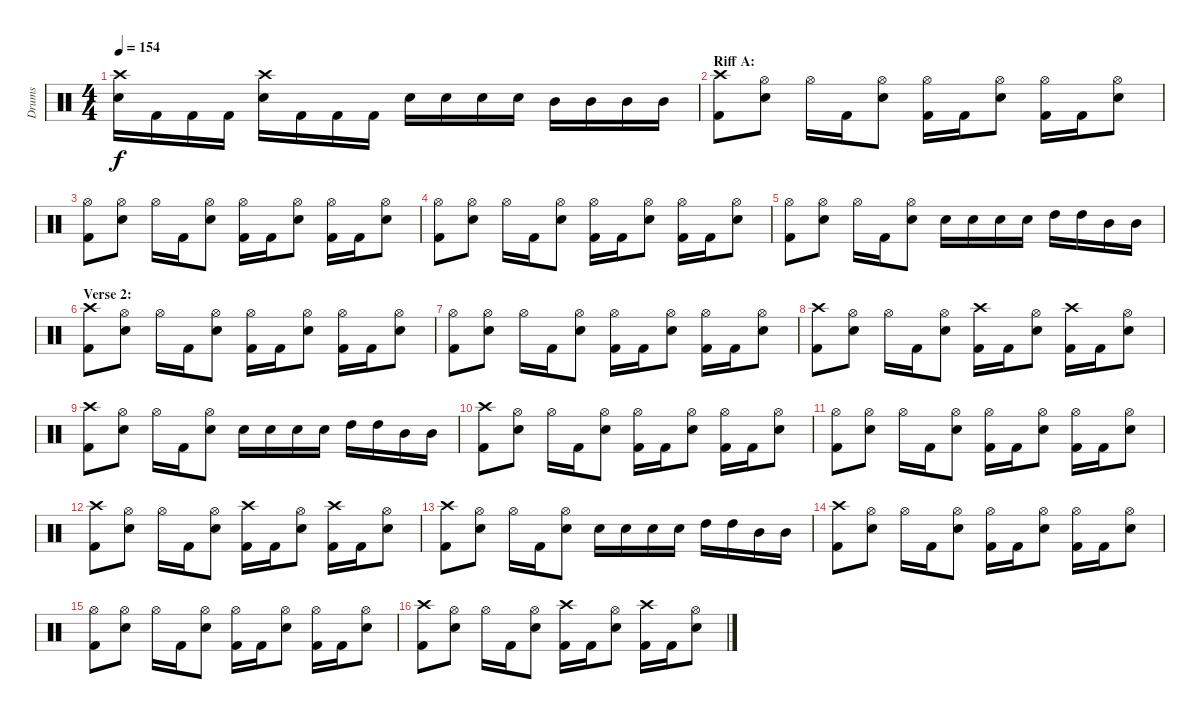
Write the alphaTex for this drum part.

\track ("Drums" "Drums") {instrument percussion}
\staff {score}
\articulation defaults
\ts (4 4)
\tempo 154
\clef neutral
\ks c
("Crash high (hit)" "Snare (hit) 2").16{dy f} "Kick (hit) 2".16 "Kick (hit) 2".16 "Kick (hit) 2".16 ("Crash high (hit)" "Snare (hit) 2").16 "Kick (hit) 2".16 "Kick (hit) 2".16 "Kick (hit) 2".16 "Snare (hit) 2".16 "Snare (hit) 2".16 "Snare (hit) 2".16 "Snare (hit) 2".16 "Mid Tom (hit)".16 "Mid Tom (hit)".16 "Mid Tom (hit)".16 "Mid Tom (hit)".16 |
\section ("" "Riff A:")
("Crash high (hit)" "Kick (hit) 2").8 ("Hi-Hat (open)" "Snare (hit) 2").8 "Hi-Hat (open)".16 "Kick (hit) 2".16 ("Hi-Hat (open)" "Snare (hit) 2").8 ("Hi-Hat (open)" "Kick (hit) 2").16 "Kick (hit) 2".16 ("Hi-Hat (open)" "Snare (hit) 2").8 ("Hi-Hat (open)" "Kick (hit) 2").16 "Kick (hit) 2".16 ("Hi-Hat (open)" "Snare (hit) 2").8 |
("Hi-Hat (open)" "Kick (hit) 2").8 ("Hi-Hat (open)" "Snare (hit) 2").8 "Hi-Hat (open)".16 "Kick (hit) 2".16 ("Hi-Hat (open)" "Snare (hit) 2").8 ("Hi-Hat (open)" "Kick (hit) 2").16 "Kick (hit) 2".16 ("Hi-Hat (open)" "Snare (hit) 2").8 ("Hi-Hat (open)" "Kick (hit) 2").16 "Kick (hit) 2".16 ("Hi-Hat (open)" "Snare (hit) 2").8 |
("Hi-Hat (open)" "Kick (hit) 2").8 ("Hi-Hat (open)" "Snare (hit) 2").8 "Hi-Hat (open)".16 "Kick (hit) 2".16 ("Hi-Hat (open)" "Snare (hit) 2").8 ("Hi-Hat (open)" "Kick (hit) 2").16 "Kick (hit) 2".16 ("Hi-Hat (open)" "Snare (hit) 2").8 ("Hi-Hat (open)" "Kick (hit) 2").16 "Kick (hit) 2".16 ("Hi-Hat (open)" "Snare (hit) 2").8 |
("Hi-Hat (open)" "Kick (hit) 2").8 ("Hi-Hat (open)" "Snare (hit) 2").8 "Hi-Hat (open)".16 "Kick (hit) 2".16 ("Hi-Hat (open)" "Snare (hit) 2").8 "Snare (hit) 2".16 "Snare (hit) 2".16 "Snare (hit) 2".16 "Snare (hit) 2".16 "High Tom (hit)".16 "High Tom (hit)".16 "Mid Tom (hit)".16 "Mid Tom (hit)".16 |
\section ("" "Verse 2:")
("Crash high (hit)" "Kick (hit) 2").8 ("Hi-Hat (open)" "Snare (hit) 2").8 "Hi-Hat (open)".16 "Kick (hit) 2".16 ("Hi-Hat (open)" "Snare (hit) 2").8 ("Hi-Hat (open)" "Kick (hit) 2").16 "Kick (hit) 2".16 ("Hi-Hat (open)" "Snare (hit) 2").8 ("Hi-Hat (open)" "Kick (hit) 2").16 "Kick (hit) 2".16 ("Hi-Hat (open)" "Snare (hit) 2").8 |
("Hi-Hat (open)" "Kick (hit) 2").8 ("Hi-Hat (open)" "Snare (hit) 2").8 "Hi-Hat (open)".16 "Kick (hit) 2".16 ("Hi-Hat (open)" "Snare (hit) 2").8 ("Hi-Hat (open)" "Kick (hit) 2").16 "Kick (hit) 2".16 ("Hi-Hat (open)" "Snare (hit) 2").8 ("Hi-Hat (open)" "Kick (hit) 2").16 "Kick (hit) 2".16 ("Hi-Hat (open)" "Snare (hit) 2").8 |
("Crash high (hit)" "Kick (hit) 2").8 ("Hi-Hat (open)" "Snare (hit) 2").8 "Hi-Hat (open)".16 "Kick (hit) 2".16 ("Hi-Hat (open)" "Snare (hit) 2").8 ("Crash high (hit)" "Kick (hit) 2").16 "Kick (hit) 2".16 ("Hi-Hat (open)" "Snare (hit) 2").8 ("Crash high (hit)" "Kick (hit) 2").16 "Kick (hit) 2".16 ("Hi-Hat (open)" "Snare (hit) 2").8 |
("Crash high (hit)" "Kick (hit) 2").8 ("Hi-Hat (open)" "Snare (hit) 2").8 "Hi-Hat (open)".16 "Kick (hit) 2".16 ("Hi-Hat (open)" "Snare (hit) 2").8 "Snare (hit) 2".16 "Snare (hit) 2".16 "Snare (hit) 2".16 "Snare (hit) 2".16 "High Tom (hit)".16 "High Tom (hit)".16 "Mid Tom (hit)".16 "Mid Tom (hit)".16 |
("Crash high (hit)" "Kick (hit) 2").8 ("Hi-Hat (open)" "Snare (hit) 2").8 "Hi-Hat (open)".16 "Kick (hit) 2".16 ("Hi-Hat (open)" "Snare (hit) 2").8 ("Hi-Hat (open)" "Kick (hit) 2").16 "Kick (hit) 2".16 ("Hi-Hat (open)" "Snare (hit) 2").8 ("Hi-Hat (open)" "Kick (hit) 2").16 "Kick (hit) 2".16 ("Hi-Hat (open)" "Snare (hit) 2").8 |
("Hi-Hat (open)" "Kick (hit) 2").8 ("Hi-Hat (open)" "Snare (hit) 2").8 "Hi-Hat (open)".16 "Kick (hit) 2".16 ("Hi-Hat (open)" "Snare (hit) 2").8 ("Hi-Hat (open)" "Kick (hit) 2").16 "Kick (hit) 2".16 ("Hi-Hat (open)" "Snare (hit) 2").8 ("Hi-Hat (open)" "Kick (hit) 2").16 "Kick (hit) 2".16 ("Hi-Hat (open)" "Snare (hit) 2").8 |
("Crash high (hit)" "Kick (hit) 2").8 ("Hi-Hat (open)" "Snare (hit) 2").8 "Hi-Hat (open)".16 "Kick (hit) 2".16 ("Hi-Hat (open)" "Snare (hit) 2").8 ("Crash high (hit)" "Kick (hit) 2").16 "Kick (hit) 2".16 ("Hi-Hat (open)" "Snare (hit) 2").8 ("Crash high (hit)" "Kick (hit) 2").16 "Kick (hit) 2".16 ("Hi-Hat (open)" "Snare (hit) 2").8 |
("Crash high (hit)" "Kick (hit) 2").8 ("Hi-Hat (open)" "Snare (hit) 2").8 "Hi-Hat (open)".16 "Kick (hit) 2".16 ("Hi-Hat (open)" "Snare (hit) 2").8 "Snare (hit) 2".16 "Snare (hit) 2".16 "Snare (hit) 2".16 "Snare (hit) 2".16 "High Tom (hit)".16 "High Tom (hit)".16 "Mid Tom (hit)".16 "Mid Tom (hit)".16 |
("Crash high (hit)" "Kick (hit) 2").8 ("Hi-Hat (open)" "Snare (hit) 2").8 "Hi-Hat (open)".16 "Kick (hit) 2".16 ("Hi-Hat (open)" "Snare (hit) 2").8 ("Hi-Hat (open)" "Kick (hit) 2").16 "Kick (hit) 2".16 ("Hi-Hat (open)" "Snare (hit) 2").8 ("Hi-Hat (open)" "Kick (hit) 2").16 "Kick (hit) 2".16 ("Hi-Hat (open)" "Snare (hit) 2").8 |
("Hi-Hat (open)" "Kick (hit) 2").8 ("Hi-Hat (open)" "Snare (hit) 2").8 "Hi-Hat (open)".16 "Kick (hit) 2".16 ("Hi-Hat (open)" "Snare (hit) 2").8 ("Hi-Hat (open)" "Kick (hit) 2").16 "Kick (hit) 2".16 ("Hi-Hat (open)" "Snare (hit) 2").8 ("Hi-Hat (open)" "Kick (hit) 2").16 "Kick (hit) 2".16 ("Hi-Hat (open)" "Snare (hit) 2").8 |
("Crash high (hit)" "Kick (hit) 2").8 ("Hi-Hat (open)" "Snare (hit) 2").8 "Hi-Hat (open)".16 "Kick (hit) 2".16 ("Hi-Hat (open)" "Snare (hit) 2").8 ("Crash high (hit)" "Kick (hit) 2").16 "Kick (hit) 2".16 ("Hi-Hat (open)" "Snare (hit) 2").8 ("Crash high (hit)" "Kick (hit) 2").16 "Kick (hit) 2".16 ("Hi-Hat (open)" "Snare (hit) 2").8
